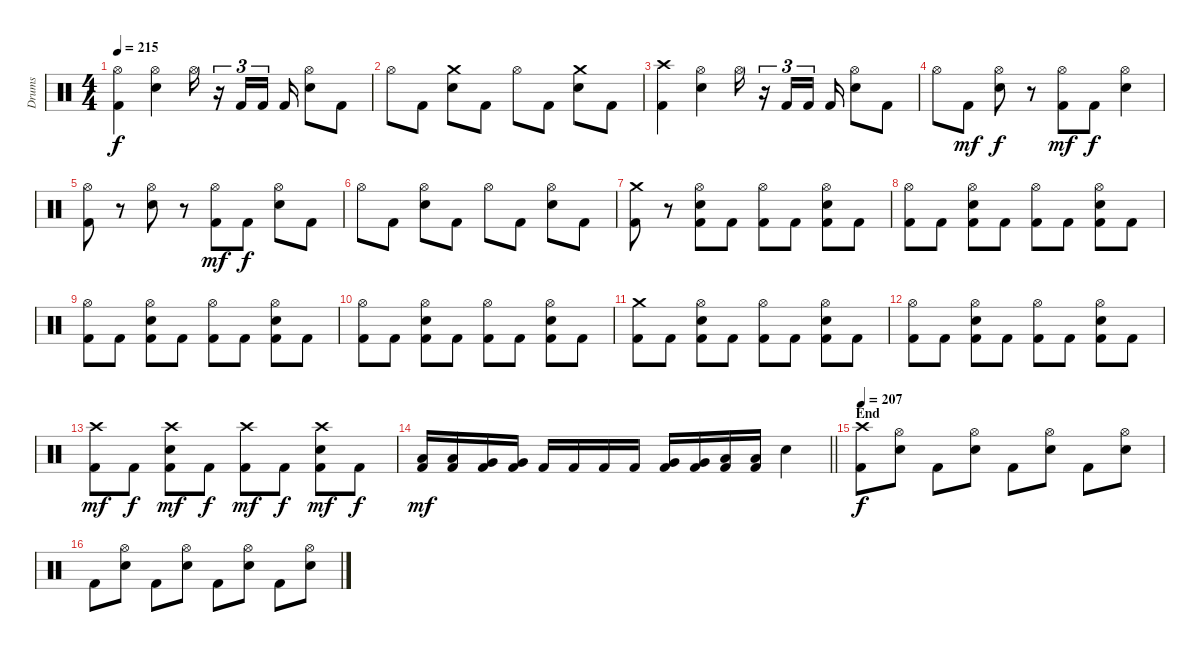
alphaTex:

\track ("Drums" "Drums") {instrument percussion}
\staff {score}
\articulation defaults
\ts (4 4)
\tempo 215
\clef neutral
\ks c
("Hi-Hat (open)" "Kick (hit) 2").4{dy f} ("Hi-Hat (open)" "Snare (hit) 2").4 "Hi-Hat (open)".16 r.16{tu (3 2)} "Kick (hit) 2".16{tu (3 2)} "Kick (hit) 2".16{tu (3 2) beam splitsecondary} "Kick (hit) 2".16 ("Hi-Hat (open)" "Snare (hit) 2").8 "Kick (hit) 2".8 |
"Hi-Hat (open)".8 "Kick (hit) 2".8 ("Crash medium (hit)" "Snare (hit) 2").8 "Kick (hit) 2".8 "Hi-Hat (open)".8 "Kick (hit) 2".8 ("Crash medium (hit)" "Snare (hit) 2").8 "Kick (hit) 2".8 |
("Crash high (hit)" "Kick (hit) 2").4 ("Hi-Hat (open)" "Snare (hit) 2").4 "Hi-Hat (open)".16 r.16{tu (3 2)} "Kick (hit) 2".16{tu (3 2)} "Kick (hit) 2".16{tu (3 2) beam splitsecondary} "Kick (hit) 2".16 ("Hi-Hat (open)" "Snare (hit) 2").8 "Kick (hit) 2".8 |
"Hi-Hat (open)".8 "Kick (hit) 2".8{dy mf} ("Hi-Hat (open)" "Snare (hit) 2").8{dy f} r.8 ("Hi-Hat (open)" "Kick (hit) 2").8{dy mf} "Kick (hit) 2".8{dy f} ("Hi-Hat (open)" "Snare (hit) 2").4 |
("Hi-Hat (open)" "Kick (hit) 2").8 r.8 ("Hi-Hat (open)" "Snare (hit) 2").8 r.8 ("Hi-Hat (open)" "Kick (hit) 2").8{dy mf} "Kick (hit) 2".8{dy f} ("Hi-Hat (open)" "Snare (hit) 2").8 "Kick (hit) 2".8 |
"Hi-Hat (open)".8 "Kick (hit) 2".8 ("Hi-Hat (open)" "Snare (hit) 2").8 "Kick (hit) 2".8 "Hi-Hat (open)".8 "Kick (hit) 2".8 ("Hi-Hat (open)" "Snare (hit) 2").8 "Kick (hit) 2".8 |
("Crash medium (hit)" "Kick (hit) 2").8 r.8 ("Hi-Hat (open)" "Snare (hit) 2" "Kick (hit) 2").8 "Kick (hit) 2".8 ("Hi-Hat (open)" "Kick (hit) 2").8 "Kick (hit) 2".8 ("Hi-Hat (open)" "Snare (hit) 2" "Kick (hit) 2").8 "Kick (hit) 2".8 |
("Hi-Hat (open)" "Kick (hit) 2").8 "Kick (hit) 2".8 ("Hi-Hat (open)" "Snare (hit) 2" "Kick (hit) 2").8 "Kick (hit) 2".8 ("Hi-Hat (open)" "Kick (hit) 2").8 "Kick (hit) 2".8 ("Hi-Hat (open)" "Snare (hit) 2" "Kick (hit) 2").8 "Kick (hit) 2".8 |
("Hi-Hat (open)" "Kick (hit) 2").8 "Kick (hit) 2".8 ("Hi-Hat (open)" "Snare (hit) 2" "Kick (hit) 2").8 "Kick (hit) 2".8 ("Hi-Hat (open)" "Kick (hit) 2").8 "Kick (hit) 2".8 ("Hi-Hat (open)" "Snare (hit) 2" "Kick (hit) 2").8 "Kick (hit) 2".8 |
("Hi-Hat (open)" "Kick (hit) 2").8 "Kick (hit) 2".8 ("Hi-Hat (open)" "Snare (hit) 2" "Kick (hit) 2").8 "Kick (hit) 2".8 ("Hi-Hat (open)" "Kick (hit) 2").8 "Kick (hit) 2".8 ("Hi-Hat (open)" "Snare (hit) 2" "Kick (hit) 2").8 "Kick (hit) 2".8 |
("Crash medium (hit)" "Kick (hit) 2").8 "Kick (hit) 2".8 ("Hi-Hat (open)" "Snare (hit) 2" "Kick (hit) 2").8 "Kick (hit) 2".8 ("Hi-Hat (open)" "Kick (hit) 2").8 "Kick (hit) 2".8 ("Hi-Hat (open)" "Snare (hit) 2" "Kick (hit) 2").8 "Kick (hit) 2".8 |
("Hi-Hat (open)" "Kick (hit) 2").8 "Kick (hit) 2".8 ("Hi-Hat (open)" "Snare (hit) 2" "Kick (hit) 2").8 "Kick (hit) 2".8 ("Hi-Hat (open)" "Kick (hit) 2").8 "Kick (hit) 2".8 ("Hi-Hat (open)" "Snare (hit) 2" "Kick (hit) 2").8 "Kick (hit) 2".8 |
("Crash high (hit)" "Kick (hit) 2").8{dy mf} "Kick (hit) 2".8{dy f} ("Crash high (hit)" "Snare (hit) 2" "Kick (hit) 2").8{dy mf} "Kick (hit) 2".8{dy f} ("Crash high (hit)" "Kick (hit) 2").8{dy mf} "Kick (hit) 2".8{dy f} ("Crash high (hit)" "Snare (hit) 2" "Kick (hit) 2").8{dy mf} "Kick (hit) 2".8{dy f} |
\barLineRight lightlight
("Low Tom (hit)" "Kick (hit) 2").16{dy mf} ("Low Tom (hit)" "Kick (hit) 2").16 ("Very Low Tom (hit)" "Kick (hit) 2").16 ("Very Low Tom (hit)" "Kick (hit) 2").16 "Kick (hit) 2".16 "Kick (hit) 2".16 "Kick (hit) 2".16 "Kick (hit) 2".16 ("Very Low Tom (hit)" "Kick (hit) 2").16 ("Very Low Tom (hit)" "Kick (hit) 2").16 ("Low Floor Tom (hit)" "Kick (hit) 2").16 ("Low Floor Tom (hit)" "Kick (hit) 2").16 "Snare (hit) 2".4 |
\section ("" "End")
\tempo 207
("Crash high (hit)" "Kick (hit) 2").8{dy f} ("Hi-Hat (open)" "Snare (hit) 2").8 "Kick (hit) 2".8 ("Hi-Hat (open)" "Snare (hit) 2").8 "Kick (hit) 2".8 ("Hi-Hat (open)" "Snare (hit) 2").8 "Kick (hit) 2".8 ("Hi-Hat (open)" "Snare (hit) 2").8 |
"Kick (hit) 2".8 ("Hi-Hat (open)" "Snare (hit) 2").8 "Kick (hit) 2".8 ("Hi-Hat (open)" "Snare (hit) 2").8 "Kick (hit) 2".8 ("Hi-Hat (open)" "Snare (hit) 2").8 "Kick (hit) 2".8 ("Hi-Hat (open)" "Snare (hit) 2").8
